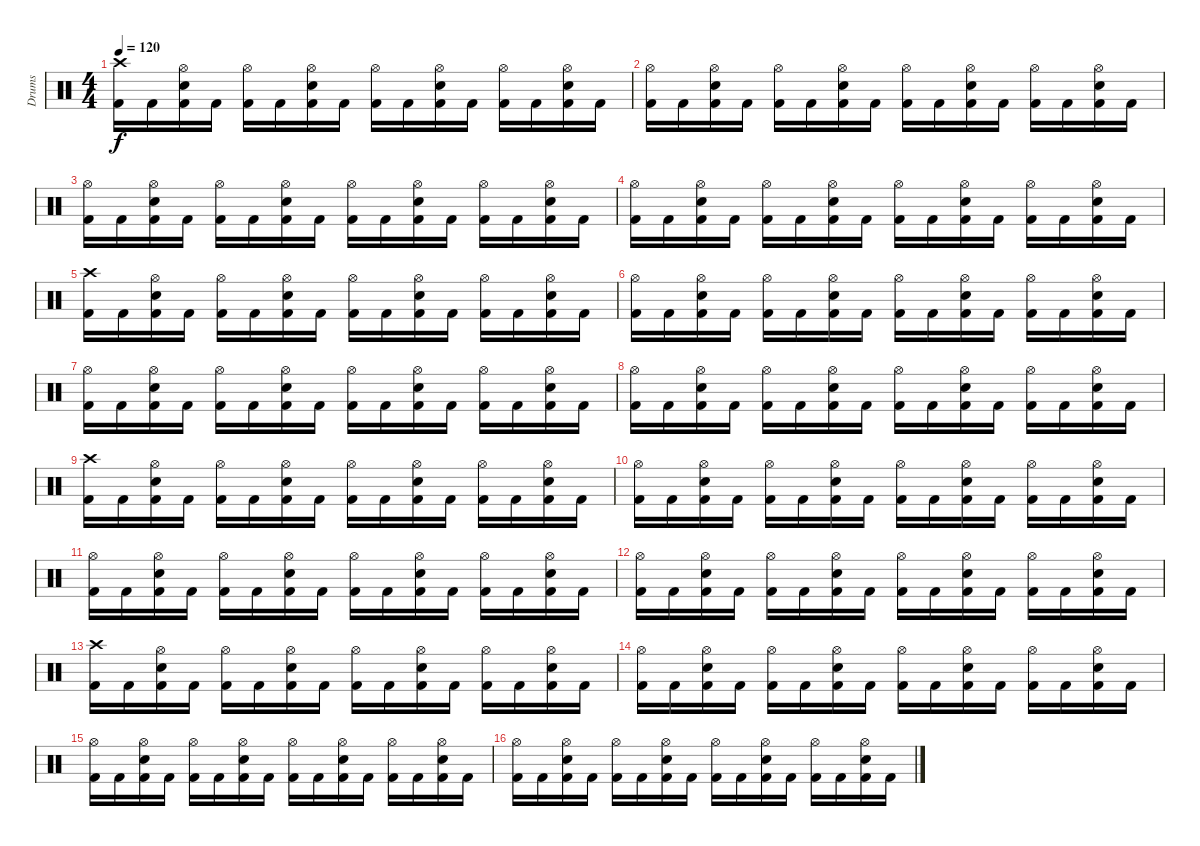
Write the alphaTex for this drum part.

\track ("Drums" "Drums") {instrument percussion}
\staff {score}
\articulation defaults
\ts (4 4)
\tempo 120
\clef neutral
\ks c
("Kick (hit) 2" "Crash high (hit)").16{dy f} "Kick (hit) 2".16 ("Kick (hit) 2" "Snare (hit) 2" "Hi-Hat (open)").16 "Kick (hit) 2".16 ("Kick (hit) 2" "Hi-Hat (open)").16 "Kick (hit) 2".16 ("Kick (hit) 2" "Snare (hit) 2" "Hi-Hat (open)").16 "Kick (hit) 2".16 ("Kick (hit) 2" "Hi-Hat (open)").16 "Kick (hit) 2".16 ("Kick (hit) 2" "Snare (hit) 2" "Hi-Hat (open)").16 "Kick (hit) 2".16 ("Kick (hit) 2" "Hi-Hat (open)").16 "Kick (hit) 2".16 ("Kick (hit) 2" "Snare (hit) 2" "Hi-Hat (open)").16 "Kick (hit) 2".16 |
("Kick (hit) 2" "Hi-Hat (open)").16 "Kick (hit) 2".16 ("Kick (hit) 2" "Snare (hit) 2" "Hi-Hat (open)").16 "Kick (hit) 2".16 ("Kick (hit) 2" "Hi-Hat (open)").16 "Kick (hit) 2".16 ("Kick (hit) 2" "Snare (hit) 2" "Hi-Hat (open)").16 "Kick (hit) 2".16 ("Kick (hit) 2" "Hi-Hat (open)").16 "Kick (hit) 2".16 ("Kick (hit) 2" "Snare (hit) 2" "Hi-Hat (open)").16 "Kick (hit) 2".16 ("Kick (hit) 2" "Hi-Hat (open)").16 "Kick (hit) 2".16 ("Kick (hit) 2" "Snare (hit) 2" "Hi-Hat (open)").16 "Kick (hit) 2".16 |
("Kick (hit) 2" "Hi-Hat (open)").16 "Kick (hit) 2".16 ("Kick (hit) 2" "Snare (hit) 2" "Hi-Hat (open)").16 "Kick (hit) 2".16 ("Kick (hit) 2" "Hi-Hat (open)").16 "Kick (hit) 2".16 ("Kick (hit) 2" "Snare (hit) 2" "Hi-Hat (open)").16 "Kick (hit) 2".16 ("Kick (hit) 2" "Hi-Hat (open)").16 "Kick (hit) 2".16 ("Kick (hit) 2" "Snare (hit) 2" "Hi-Hat (open)").16 "Kick (hit) 2".16 ("Kick (hit) 2" "Hi-Hat (open)").16 "Kick (hit) 2".16 ("Kick (hit) 2" "Snare (hit) 2" "Hi-Hat (open)").16 "Kick (hit) 2".16 |
("Kick (hit) 2" "Hi-Hat (open)").16 "Kick (hit) 2".16 ("Kick (hit) 2" "Snare (hit) 2" "Hi-Hat (open)").16 "Kick (hit) 2".16 ("Kick (hit) 2" "Hi-Hat (open)").16 "Kick (hit) 2".16 ("Kick (hit) 2" "Snare (hit) 2" "Hi-Hat (open)").16 "Kick (hit) 2".16 ("Kick (hit) 2" "Hi-Hat (open)").16 "Kick (hit) 2".16 ("Kick (hit) 2" "Snare (hit) 2" "Hi-Hat (open)").16 "Kick (hit) 2".16 ("Kick (hit) 2" "Hi-Hat (open)").16 "Kick (hit) 2".16 ("Kick (hit) 2" "Snare (hit) 2" "Hi-Hat (open)").16 "Kick (hit) 2".16 |
("Kick (hit) 2" "Crash high (hit)").16 "Kick (hit) 2".16 ("Kick (hit) 2" "Snare (hit) 2" "Hi-Hat (open)").16 "Kick (hit) 2".16 ("Kick (hit) 2" "Hi-Hat (open)").16 "Kick (hit) 2".16 ("Kick (hit) 2" "Snare (hit) 2" "Hi-Hat (open)").16 "Kick (hit) 2".16 ("Kick (hit) 2" "Hi-Hat (open)").16 "Kick (hit) 2".16 ("Kick (hit) 2" "Snare (hit) 2" "Hi-Hat (open)").16 "Kick (hit) 2".16 ("Kick (hit) 2" "Hi-Hat (open)").16 "Kick (hit) 2".16 ("Kick (hit) 2" "Snare (hit) 2" "Hi-Hat (open)").16 "Kick (hit) 2".16 |
("Kick (hit) 2" "Hi-Hat (open)").16 "Kick (hit) 2".16 ("Kick (hit) 2" "Snare (hit) 2" "Hi-Hat (open)").16 "Kick (hit) 2".16 ("Kick (hit) 2" "Hi-Hat (open)").16 "Kick (hit) 2".16 ("Kick (hit) 2" "Snare (hit) 2" "Hi-Hat (open)").16 "Kick (hit) 2".16 ("Kick (hit) 2" "Hi-Hat (open)").16 "Kick (hit) 2".16 ("Kick (hit) 2" "Snare (hit) 2" "Hi-Hat (open)").16 "Kick (hit) 2".16 ("Kick (hit) 2" "Hi-Hat (open)").16 "Kick (hit) 2".16 ("Kick (hit) 2" "Snare (hit) 2" "Hi-Hat (open)").16 "Kick (hit) 2".16 |
("Kick (hit) 2" "Hi-Hat (open)").16 "Kick (hit) 2".16 ("Kick (hit) 2" "Snare (hit) 2" "Hi-Hat (open)").16 "Kick (hit) 2".16 ("Kick (hit) 2" "Hi-Hat (open)").16 "Kick (hit) 2".16 ("Kick (hit) 2" "Snare (hit) 2" "Hi-Hat (open)").16 "Kick (hit) 2".16 ("Kick (hit) 2" "Hi-Hat (open)").16 "Kick (hit) 2".16 ("Kick (hit) 2" "Snare (hit) 2" "Hi-Hat (open)").16 "Kick (hit) 2".16 ("Kick (hit) 2" "Hi-Hat (open)").16 "Kick (hit) 2".16 ("Kick (hit) 2" "Snare (hit) 2" "Hi-Hat (open)").16 "Kick (hit) 2".16 |
("Kick (hit) 2" "Hi-Hat (open)").16 "Kick (hit) 2".16 ("Kick (hit) 2" "Snare (hit) 2" "Hi-Hat (open)").16 "Kick (hit) 2".16 ("Kick (hit) 2" "Hi-Hat (open)").16 "Kick (hit) 2".16 ("Kick (hit) 2" "Snare (hit) 2" "Hi-Hat (open)").16 "Kick (hit) 2".16 ("Kick (hit) 2" "Hi-Hat (open)").16 "Kick (hit) 2".16 ("Kick (hit) 2" "Snare (hit) 2" "Hi-Hat (open)").16 "Kick (hit) 2".16 ("Kick (hit) 2" "Hi-Hat (open)").16 "Kick (hit) 2".16 ("Kick (hit) 2" "Snare (hit) 2" "Hi-Hat (open)").16 "Kick (hit) 2".16 |
("Kick (hit) 2" "Crash high (hit)").16 "Kick (hit) 2".16 ("Kick (hit) 2" "Snare (hit) 2" "Hi-Hat (open)").16 "Kick (hit) 2".16 ("Kick (hit) 2" "Hi-Hat (open)").16 "Kick (hit) 2".16 ("Kick (hit) 2" "Snare (hit) 2" "Hi-Hat (open)").16 "Kick (hit) 2".16 ("Kick (hit) 2" "Hi-Hat (open)").16 "Kick (hit) 2".16 ("Kick (hit) 2" "Snare (hit) 2" "Hi-Hat (open)").16 "Kick (hit) 2".16 ("Kick (hit) 2" "Hi-Hat (open)").16 "Kick (hit) 2".16 ("Kick (hit) 2" "Snare (hit) 2" "Hi-Hat (open)").16 "Kick (hit) 2".16 |
("Kick (hit) 2" "Hi-Hat (open)").16 "Kick (hit) 2".16 ("Kick (hit) 2" "Snare (hit) 2" "Hi-Hat (open)").16 "Kick (hit) 2".16 ("Kick (hit) 2" "Hi-Hat (open)").16 "Kick (hit) 2".16 ("Kick (hit) 2" "Snare (hit) 2" "Hi-Hat (open)").16 "Kick (hit) 2".16 ("Kick (hit) 2" "Hi-Hat (open)").16 "Kick (hit) 2".16 ("Kick (hit) 2" "Snare (hit) 2" "Hi-Hat (open)").16 "Kick (hit) 2".16 ("Kick (hit) 2" "Hi-Hat (open)").16 "Kick (hit) 2".16 ("Kick (hit) 2" "Snare (hit) 2" "Hi-Hat (open)").16 "Kick (hit) 2".16 |
("Kick (hit) 2" "Hi-Hat (open)").16 "Kick (hit) 2".16 ("Kick (hit) 2" "Snare (hit) 2" "Hi-Hat (open)").16 "Kick (hit) 2".16 ("Kick (hit) 2" "Hi-Hat (open)").16 "Kick (hit) 2".16 ("Kick (hit) 2" "Snare (hit) 2" "Hi-Hat (open)").16 "Kick (hit) 2".16 ("Kick (hit) 2" "Hi-Hat (open)").16 "Kick (hit) 2".16 ("Kick (hit) 2" "Snare (hit) 2" "Hi-Hat (open)").16 "Kick (hit) 2".16 ("Kick (hit) 2" "Hi-Hat (open)").16 "Kick (hit) 2".16 ("Kick (hit) 2" "Snare (hit) 2" "Hi-Hat (open)").16 "Kick (hit) 2".16 |
("Kick (hit) 2" "Hi-Hat (open)").16 "Kick (hit) 2".16 ("Kick (hit) 2" "Snare (hit) 2" "Hi-Hat (open)").16 "Kick (hit) 2".16 ("Kick (hit) 2" "Hi-Hat (open)").16 "Kick (hit) 2".16 ("Kick (hit) 2" "Snare (hit) 2" "Hi-Hat (open)").16 "Kick (hit) 2".16 ("Kick (hit) 2" "Hi-Hat (open)").16 "Kick (hit) 2".16 ("Kick (hit) 2" "Snare (hit) 2" "Hi-Hat (open)").16 "Kick (hit) 2".16 ("Kick (hit) 2" "Hi-Hat (open)").16 "Kick (hit) 2".16 ("Kick (hit) 2" "Snare (hit) 2" "Hi-Hat (open)").16 "Kick (hit) 2".16 |
("Kick (hit) 2" "Crash high (hit)").16 "Kick (hit) 2".16 ("Kick (hit) 2" "Snare (hit) 2" "Hi-Hat (open)").16 "Kick (hit) 2".16 ("Kick (hit) 2" "Hi-Hat (open)").16 "Kick (hit) 2".16 ("Kick (hit) 2" "Snare (hit) 2" "Hi-Hat (open)").16 "Kick (hit) 2".16 ("Kick (hit) 2" "Hi-Hat (open)").16 "Kick (hit) 2".16 ("Kick (hit) 2" "Snare (hit) 2" "Hi-Hat (open)").16 "Kick (hit) 2".16 ("Kick (hit) 2" "Hi-Hat (open)").16 "Kick (hit) 2".16 ("Kick (hit) 2" "Snare (hit) 2" "Hi-Hat (open)").16 "Kick (hit) 2".16 |
("Kick (hit) 2" "Hi-Hat (open)").16 "Kick (hit) 2".16 ("Kick (hit) 2" "Snare (hit) 2" "Hi-Hat (open)").16 "Kick (hit) 2".16 ("Kick (hit) 2" "Hi-Hat (open)").16 "Kick (hit) 2".16 ("Kick (hit) 2" "Snare (hit) 2" "Hi-Hat (open)").16 "Kick (hit) 2".16 ("Kick (hit) 2" "Hi-Hat (open)").16 "Kick (hit) 2".16 ("Kick (hit) 2" "Snare (hit) 2" "Hi-Hat (open)").16 "Kick (hit) 2".16 ("Kick (hit) 2" "Hi-Hat (open)").16 "Kick (hit) 2".16 ("Kick (hit) 2" "Snare (hit) 2" "Hi-Hat (open)").16 "Kick (hit) 2".16 |
("Kick (hit) 2" "Hi-Hat (open)").16 "Kick (hit) 2".16 ("Kick (hit) 2" "Snare (hit) 2" "Hi-Hat (open)").16 "Kick (hit) 2".16 ("Kick (hit) 2" "Hi-Hat (open)").16 "Kick (hit) 2".16 ("Kick (hit) 2" "Snare (hit) 2" "Hi-Hat (open)").16 "Kick (hit) 2".16 ("Kick (hit) 2" "Hi-Hat (open)").16 "Kick (hit) 2".16 ("Kick (hit) 2" "Snare (hit) 2" "Hi-Hat (open)").16 "Kick (hit) 2".16 ("Kick (hit) 2" "Hi-Hat (open)").16 "Kick (hit) 2".16 ("Kick (hit) 2" "Snare (hit) 2" "Hi-Hat (open)").16 "Kick (hit) 2".16 |
("Kick (hit) 2" "Hi-Hat (open)").16 "Kick (hit) 2".16 ("Kick (hit) 2" "Snare (hit) 2" "Hi-Hat (open)").16 "Kick (hit) 2".16 ("Kick (hit) 2" "Hi-Hat (open)").16 "Kick (hit) 2".16 ("Kick (hit) 2" "Snare (hit) 2" "Hi-Hat (open)").16 "Kick (hit) 2".16 ("Kick (hit) 2" "Hi-Hat (open)").16 "Kick (hit) 2".16 ("Kick (hit) 2" "Snare (hit) 2" "Hi-Hat (open)").16 "Kick (hit) 2".16 ("Kick (hit) 2" "Hi-Hat (open)").16 "Kick (hit) 2".16 ("Kick (hit) 2" "Snare (hit) 2" "Hi-Hat (open)").16 "Kick (hit) 2".16
